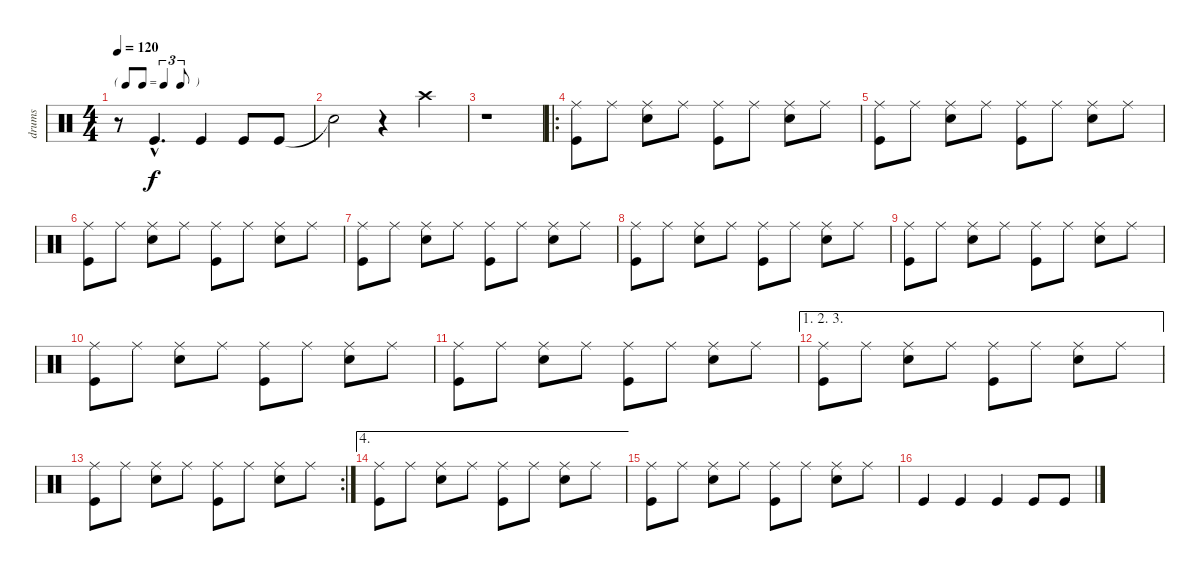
\track ("drums" "drums") {instrument percussion}
\staff {score}
\articulation defaults
\ts (4 4)
\tf triplet8th
\tempo 120
\clef neutral
\ks c
r.8{dy f} "Kick (hit)"{hac}.4{d} "Kick (hit)".4 "Kick (hit)".8 "Kick (hit)".8 |
"Snare (hit)"{t}.2 r.4 "Crash high (hit)".4 |
r.1 |
\ro
("Ride (middle)" "Kick (hit)").8 "Ride (middle)".8 ("Ride (middle)" "Electric Snare (hit)").8 "Ride (middle)".8 ("Ride (middle)" "Kick (hit)").8 "Ride (middle)".8 ("Ride (middle)" "Electric Snare (hit)").8 "Ride (middle)".8 |
("Ride (middle)" "Kick (hit)").8 "Ride (middle)".8 ("Ride (middle)" "Electric Snare (hit)").8 "Ride (middle)".8 ("Ride (middle)" "Kick (hit)").8 "Ride (middle)".8 ("Ride (middle)" "Electric Snare (hit)").8 "Ride (middle)".8 |
("Ride (middle)" "Kick (hit)").8 "Ride (middle)".8 ("Ride (middle)" "Electric Snare (hit)").8 "Ride (middle)".8 ("Ride (middle)" "Kick (hit)").8 "Ride (middle)".8 ("Ride (middle)" "Electric Snare (hit)").8 "Ride (middle)".8 |
("Ride (middle)" "Kick (hit)").8 "Ride (middle)".8 ("Ride (middle)" "Electric Snare (hit)").8 "Ride (middle)".8 ("Ride (middle)" "Kick (hit)").8 "Ride (middle)".8 ("Ride (middle)" "Electric Snare (hit)").8 "Ride (middle)".8 |
("Ride (middle)" "Kick (hit)").8 "Ride (middle)".8 ("Ride (middle)" "Electric Snare (hit)").8 "Ride (middle)".8 ("Ride (middle)" "Kick (hit)").8 "Ride (middle)".8 ("Ride (middle)" "Electric Snare (hit)").8 "Ride (middle)".8 |
("Ride (middle)" "Kick (hit)").8 "Ride (middle)".8 ("Ride (middle)" "Electric Snare (hit)").8 "Ride (middle)".8 ("Ride (middle)" "Kick (hit)").8 "Ride (middle)".8 ("Ride (middle)" "Electric Snare (hit)").8 "Ride (middle)".8 |
("Ride (middle)" "Kick (hit)").8 "Ride (middle)".8 ("Ride (middle)" "Electric Snare (hit)").8 "Ride (middle)".8 ("Ride (middle)" "Kick (hit)").8 "Ride (middle)".8 ("Ride (middle)" "Electric Snare (hit)").8 "Ride (middle)".8 |
("Ride (middle)" "Kick (hit)").8 "Ride (middle)".8 ("Ride (middle)" "Electric Snare (hit)").8 "Ride (middle)".8 ("Ride (middle)" "Kick (hit)").8 "Ride (middle)".8 ("Ride (middle)" "Electric Snare (hit)").8 "Ride (middle)".8 |
\ae (1 2 3)
("Ride (middle)" "Kick (hit)").8 "Ride (middle)".8 ("Ride (middle)" "Electric Snare (hit)").8 "Ride (middle)".8 ("Ride (middle)" "Kick (hit)").8 "Ride (middle)".8 ("Ride (middle)" "Electric Snare (hit)").8 "Ride (middle)".8 |
\rc 2
("Ride (middle)" "Kick (hit)").8 "Ride (middle)".8 ("Ride (middle)" "Electric Snare (hit)").8 "Ride (middle)".8 ("Ride (middle)" "Kick (hit)").8 "Ride (middle)".8 ("Ride (middle)" "Electric Snare (hit)").8 "Ride (middle)".8 |
\ae 4
("Ride (middle)" "Kick (hit)").8 "Ride (middle)".8 ("Ride (middle)" "Electric Snare (hit)").8 "Ride (middle)".8 ("Ride (middle)" "Kick (hit)").8 "Ride (middle)".8 ("Ride (middle)" "Electric Snare (hit)").8 "Ride (middle)".8 |
("Ride (middle)" "Kick (hit)").8 "Ride (middle)".8 ("Ride (middle)" "Electric Snare (hit)").8 "Ride (middle)".8 ("Ride (middle)" "Kick (hit)").8 "Ride (middle)".8 ("Ride (middle)" "Electric Snare (hit)").8 "Ride (middle)".8 |
"Kick (hit)".4 "Kick (hit)".4 "Kick (hit)".4 "Kick (hit)".8 "Kick (hit)".8
